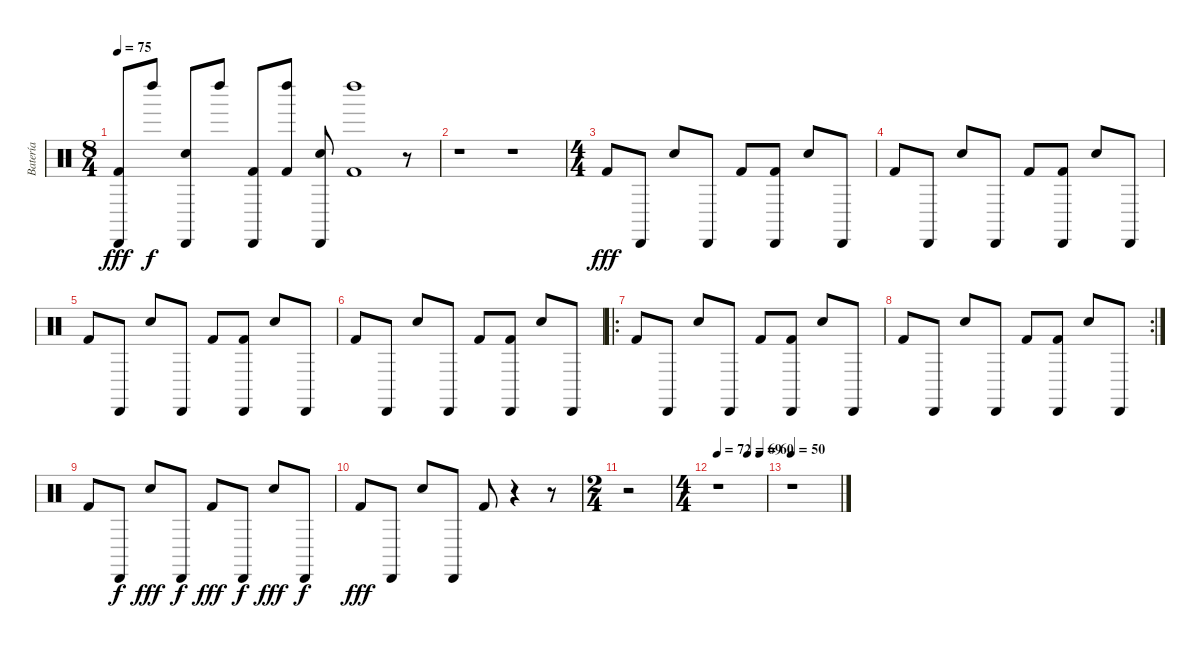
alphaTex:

\track ("Batería" "Batería") {instrument percussion}
\staff {score}
\articulation defaults
\ts (8 4)
\tempo 75
\clef neutral
\ks c
("Cabasa (hit)" "Kick (hit) 2").8{dy fff} "Left Maraca (hit)".8{dy f} ("Cabasa (hit)" "Electric Snare (hit)").8 "Left Maraca (hit)".8 ("Cabasa (hit)" "Kick (hit) 2").8 ("Left Maraca (hit)" "Kick (hit) 2").8 ("Cabasa (hit)" "Electric Snare (hit)").8 ("Left Maraca (hit)" "Kick (hit) 2").1 r.8 |
r.1 r.1 |
\ts (4 4)
"Kick (hit) 2".8{dy fff} "Cabasa (hit)".8 "Electric Snare (hit)".8 "Cabasa (hit)".8 "Kick (hit) 2".8 ("Cabasa (hit)" "Kick (hit) 2").8 "Electric Snare (hit)".8 "Cabasa (hit)".8 |
"Kick (hit) 2".8 "Cabasa (hit)".8 "Electric Snare (hit)".8 "Cabasa (hit)".8 "Kick (hit) 2".8 ("Cabasa (hit)" "Kick (hit) 2").8 "Electric Snare (hit)".8 "Cabasa (hit)".8 |
"Kick (hit) 2".8 "Cabasa (hit)".8 "Electric Snare (hit)".8 "Cabasa (hit)".8 "Kick (hit) 2".8 ("Cabasa (hit)" "Kick (hit) 2").8 "Electric Snare (hit)".8 "Cabasa (hit)".8 |
"Kick (hit) 2".8 "Cabasa (hit)".8 "Electric Snare (hit)".8 "Cabasa (hit)".8 "Kick (hit) 2".8 ("Cabasa (hit)" "Kick (hit) 2").8 "Electric Snare (hit)".8 "Cabasa (hit)".8 |
\ro "Kick (hit) 2".8 "Cabasa (hit)".8 "Electric Snare (hit)".8 "Cabasa (hit)".8 "Kick (hit) 2".8
("Cabasa (hit)" "Kick (hit) 2").8 "Electric Snare (hit)".8 "Cabasa (hit)".8 |
\rc 2 "Kick (hit) 2".8 "Cabasa (hit)".8 "Electric Snare (hit)".8 "Cabasa (hit)".8 "Kick (hit) 2".8
("Cabasa (hit)" "Kick (hit) 2").8 "Electric Snare (hit)".8 "Cabasa (hit)".8 |
"Kick (hit) 2".8 "Cabasa (hit)".8{dy f} "Electric Snare (hit)".8{dy fff} "Cabasa (hit)".8{dy f} "Kick (hit) 2".8{dy fff} "Cabasa (hit)".8{dy f} "Electric Snare (hit)".8{dy fff} "Cabasa (hit)".8{dy f} |
"Kick (hit) 2".8{dy fff} "Cabasa (hit)".8 "Electric Snare (hit)".8 "Cabasa (hit)".8 "Kick (hit) 2".8 r.4 r.8 |
\ts (2 4)
r.2 |
\ts (4 4)
\tempo 72
\tempo (69 0.625)
\tempo (60 0.875)
r.1 |
\tempo 50
r.1
